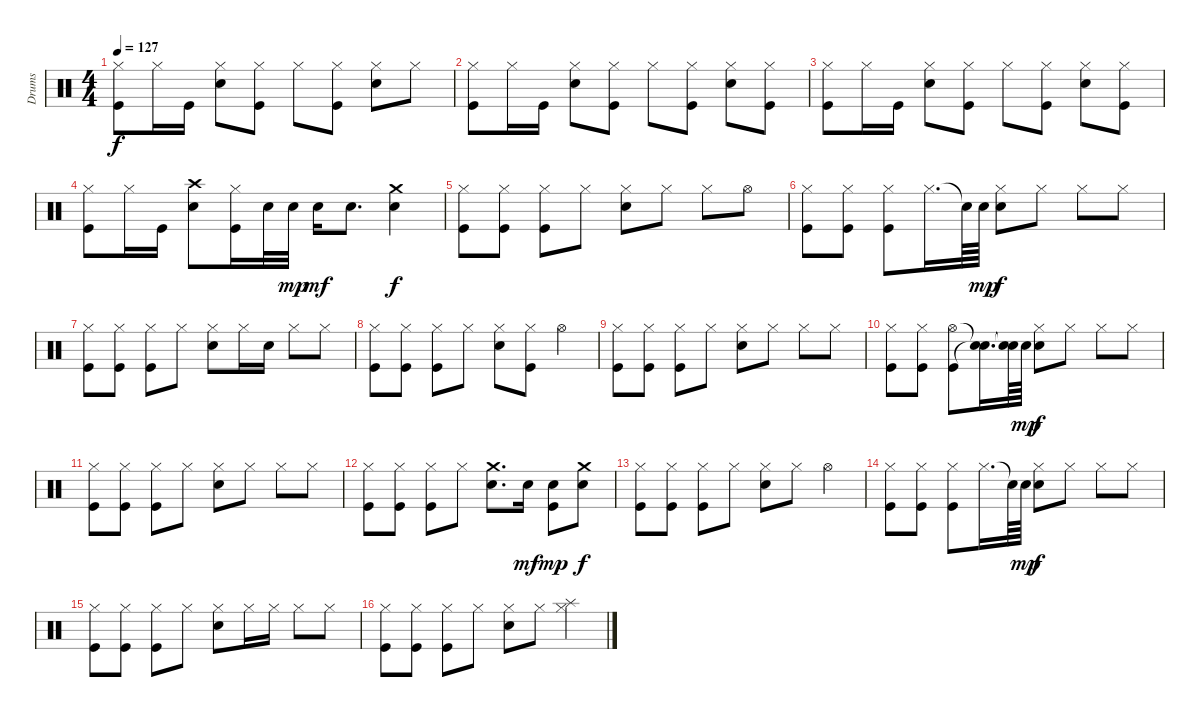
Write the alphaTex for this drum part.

\track ("Drums" "Drums") {instrument percussion}
\staff {score}
\articulation defaults
\ts (4 4)
\tempo 127
\clef neutral
\ks c
("Hi-Hat (closed)" "Kick (hit)").8{dy f} "Hi-Hat (closed)".16 "Kick (hit)".16 ("Electric Snare (hit)" "Hi-Hat (closed)").8 ("Hi-Hat (closed)" "Kick (hit)").8 "Hi-Hat (closed)".8 ("Hi-Hat (closed)" "Kick (hit)").8 ("Electric Snare (hit)" "Hi-Hat (closed)").8 "Hi-Hat (closed)".8 |
("Hi-Hat (closed)" "Kick (hit)").8 "Hi-Hat (closed)".16 "Kick (hit)".16 ("Electric Snare (hit)" "Hi-Hat (closed)").8 ("Hi-Hat (closed)" "Kick (hit)").8 "Hi-Hat (closed)".8 ("Hi-Hat (closed)" "Kick (hit)").8 ("Electric Snare (hit)" "Hi-Hat (closed)").8 ("Hi-Hat (closed)" "Kick (hit)").8 |
("Hi-Hat (closed)" "Kick (hit)").8 "Hi-Hat (closed)".16 "Kick (hit)".16 ("Electric Snare (hit)" "Hi-Hat (closed)").8 ("Hi-Hat (closed)" "Kick (hit)").8 "Hi-Hat (closed)".8 ("Hi-Hat (closed)" "Kick (hit)").8 ("Electric Snare (hit)" "Hi-Hat (closed)").8 ("Hi-Hat (closed)" "Kick (hit)").8 |
("Hi-Hat (closed)" "Kick (hit)").8 "Hi-Hat (closed)".16 "Kick (hit)".16 ("Electric Snare (hit)" "Crash high (hit)").8 ("Hi-Hat (closed)" "Kick (hit)").16 "Electric Snare (hit)".32 "Electric Snare (hit)".32{dy mp} "Electric Snare (hit)".16{dy mf} "Electric Snare (hit)".8{d} ("Electric Snare (hit)" "Crash medium (hit)").4{dy f} |
("Hi-Hat (closed)" "Kick (hit)").8 ("Hi-Hat (closed)" "Kick (hit)").8 ("Hi-Hat (closed)" "Kick (hit)").8 "Hi-Hat (closed)".8 ("Electric Snare (hit)" "Hi-Hat (closed)").8 "Hi-Hat (closed)".8 "Hi-Hat (closed)".8 "Hi-Hat (open)".8 |
("Hi-Hat (closed)" "Kick (hit)").8 ("Hi-Hat (closed)" "Kick (hit)").8 ("Hi-Hat (closed)" "Kick (hit)").8 "Hi-Hat (closed)".16{d} "Snare (hit)"{t}.64 "Electric Snare (hit)".64{dy mp} ("Electric Snare (hit)" "Hi-Hat (closed)").8{dy f} "Hi-Hat (closed)".8 "Hi-Hat (closed)".8 "Hi-Hat (closed)".8 |
("Hi-Hat (closed)" "Kick (hit)").8 ("Hi-Hat (closed)" "Kick (hit)").8 ("Hi-Hat (closed)" "Kick (hit)").8 "Hi-Hat (closed)".8 ("Electric Snare (hit)" "Hi-Hat (closed)").8 "Hi-Hat (closed)".16 "Electric Snare (hit)".16 "Hi-Hat (closed)".8 "Hi-Hat (closed)".8 |
("Hi-Hat (closed)" "Kick (hit)").8 ("Hi-Hat (closed)" "Kick (hit)").8 ("Hi-Hat (closed)" "Kick (hit)").8 "Hi-Hat (closed)".8 ("Electric Snare (hit)" "Hi-Hat (closed)").8 ("Hi-Hat (closed)" "Kick (hit)").8 "Hi-Hat (open)".4 |
("Hi-Hat (closed)" "Kick (hit)").8 ("Hi-Hat (closed)" "Kick (hit)").8 ("Hi-Hat (closed)" "Kick (hit)").8 "Hi-Hat (closed)".8 ("Electric Snare (hit)" "Hi-Hat (closed)").8 "Hi-Hat (closed)".8 "Hi-Hat (closed)".8 "Hi-Hat (closed)".8 |
("Hi-Hat (closed)" "Kick (hit)").8 ("Hi-Hat (closed)" "Kick (hit)").8 ("Hi-Hat (open)" "Kick (hit)").8 ("Snare (hit)"{t} "Snare (hit)"{t}).16{d} ("Snare (hit)"{t} "Snare (hit)"{t}).64 "Electric Snare (hit)".64{dy mp} ("Electric Snare (hit)" "Hi-Hat (closed)").8{dy f} "Hi-Hat (closed)".8 "Hi-Hat (closed)".8 "Hi-Hat (closed)".8 |
("Hi-Hat (closed)" "Kick (hit)").8 ("Hi-Hat (closed)" "Kick (hit)").8 ("Hi-Hat (closed)" "Kick (hit)").8 "Hi-Hat (closed)".8 ("Electric Snare (hit)" "Hi-Hat (closed)").8 "Hi-Hat (closed)".8 "Hi-Hat (closed)".8 "Hi-Hat (closed)".8 |
("Hi-Hat (closed)" "Kick (hit)").8 ("Hi-Hat (closed)" "Kick (hit)").8 ("Hi-Hat (closed)" "Kick (hit)").8 "Hi-Hat (closed)".8 ("Electric Snare (hit)" "Crash medium (hit)").8{d} "Electric Snare (hit)".16{dy mf} ("Electric Snare (hit)" "Kick (hit)").8{dy mp} ("Electric Snare (hit)" "Crash medium (hit)").8{dy f} |
("Hi-Hat (closed)" "Kick (hit)").8 ("Hi-Hat (closed)" "Kick (hit)").8 ("Hi-Hat (closed)" "Kick (hit)").8 "Hi-Hat (closed)".8 ("Electric Snare (hit)" "Hi-Hat (closed)").8 "Hi-Hat (closed)".8 "Hi-Hat (open)".4 |
("Hi-Hat (closed)" "Kick (hit)").8 ("Hi-Hat (closed)" "Kick (hit)").8 ("Hi-Hat (closed)" "Kick (hit)").8 "Hi-Hat (closed)".16{d} "Snare (hit)"{t}.64 "Electric Snare (hit)".64{dy mp} ("Electric Snare (hit)" "Hi-Hat (closed)").8{dy f} "Hi-Hat (closed)".8 "Hi-Hat (closed)".8 "Hi-Hat (closed)".8 |
("Hi-Hat (closed)" "Kick (hit)").8 ("Hi-Hat (closed)" "Kick (hit)").8 ("Hi-Hat (closed)" "Kick (hit)").8 "Hi-Hat (closed)".8 ("Electric Snare (hit)" "Hi-Hat (closed)").8 "Hi-Hat (closed)".16 "Hi-Hat (closed)".16 "Hi-Hat (closed)".8 "Hi-Hat (closed)".8 |
("Hi-Hat (closed)" "Kick (hit)").8 ("Hi-Hat (closed)" "Kick (hit)").8 ("Hi-Hat (closed)" "Kick (hit)").8 "Hi-Hat (closed)".8 ("Electric Snare (hit)" "Hi-Hat (closed)").8 "Hi-Hat (closed)".8 ("Hi-Hat (closed)" "Splash (hit)").4
